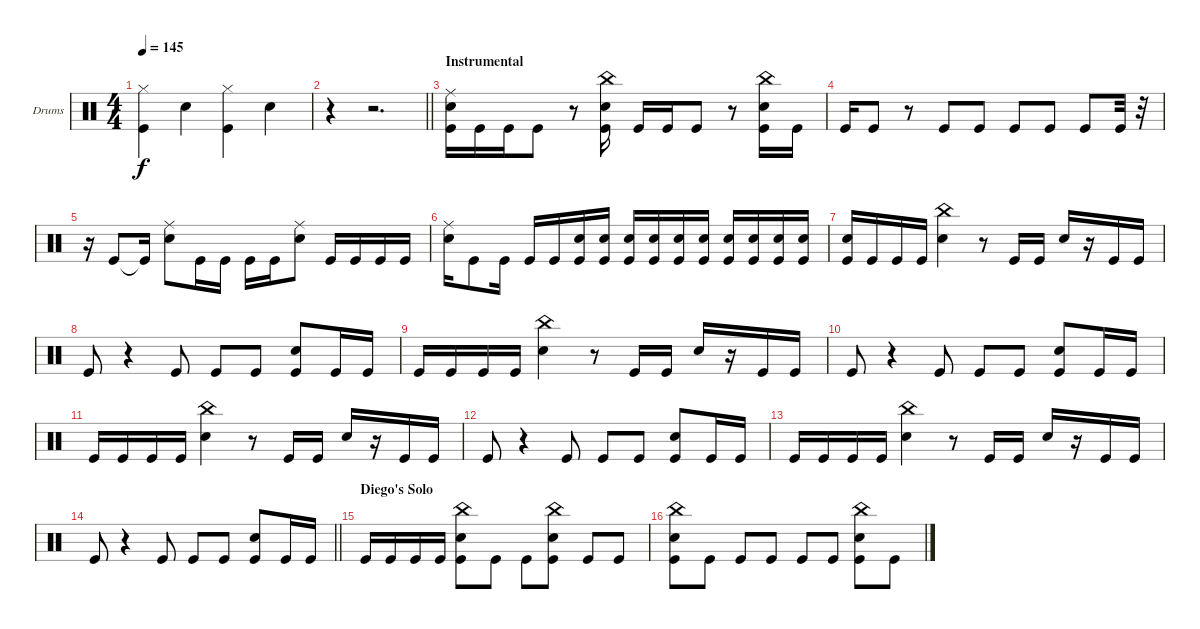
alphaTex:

\bracketExtendMode groupsimilarinstruments
\firstSystemTrackNameOrientation horizontal
\otherSystemsTrackNameOrientation horizontal
\track ("Drumkit" "Drums") {instrument percussion}
\staff {score}
\articulation defaults
\ts (4 4)
\tempo 145
\clef neutral
\ks c
("Hi-Hat (closed)" "Kick (hit)").4{dy f} "Snare (hit) 2".4 ("Hi-Hat (closed)" "Kick (hit)").4 "Snare (hit) 2".4 |
\barLineRight lightlight
r.4 r.2{d} |
\section ("" "Instrumental")
("Ride (middle)" "Snare (hit) 2" "Kick (hit)").16 "Kick (hit)".16 "Kick (hit)".16 "Kick (hit)".8 r.8 ("China (hit)" "Snare (hit) 2" "Kick (hit)").16 "Kick (hit)".16 "Kick (hit)".16 "Kick (hit)".8 r.8 ("China (hit)" "Snare (hit) 2" "Kick (hit)").16 "Kick (hit)".16 |
"Kick (hit)".16 "Kick (hit)".8 r.8 "Kick (hit)".8 "Kick (hit)".8 "Kick (hit)".8 "Kick (hit)".8 "Kick (hit)".8 "Kick (hit)".32 r.32 |
r.16 "Kick (hit)".8 "Kick (hit)"{t}.16 ("Ride (middle)" "Snare (hit) 2").8 "Kick (hit)".16 "Kick (hit)".16 "Kick (hit)".16 "Kick (hit)".16 ("Ride (middle)" "Snare (hit) 2").8 "Kick (hit)".16 "Kick (hit)".16 "Kick (hit)".16 "Kick (hit)".16 |
("Ride (middle)" "Snare (hit) 2").16 "Kick (hit)".8 "Kick (hit)".16 "Kick (hit)".16 "Kick (hit)".16 ("Snare (hit) 2" "Kick (hit)").16 ("Snare (hit) 2" "Kick (hit)").16 ("Snare (hit) 2" "Kick (hit)").16 ("Snare (hit) 2" "Kick (hit)").16 ("Snare (hit) 2" "Kick (hit)").16 ("Snare (hit) 2" "Kick (hit)").16 ("Snare (hit) 2" "Kick (hit)").16 ("Snare (hit) 2" "Kick (hit)").16 ("Snare (hit) 2" "Kick (hit)").16 ("Snare (hit) 2" "Kick (hit)").16 |
("Snare (hit) 2" "Kick (hit)").16 "Kick (hit)".16 "Kick (hit)".16 "Kick (hit)".16 ("China (hit)" "Snare (hit) 2").4 r.8 "Kick (hit)".16 "Kick (hit)".16 "Snare (hit) 2".16 r.16 "Kick (hit)".16 "Kick (hit)".16 |
"Kick (hit)".8 r.4 "Kick (hit)".8 "Kick (hit)".8 "Kick (hit)".8 ("Snare (hit) 2" "Kick (hit)").8 "Kick (hit)".16 "Kick (hit)".16 |
"Kick (hit)".16 "Kick (hit)".16 "Kick (hit)".16 "Kick (hit)".16 ("China (hit)" "Snare (hit) 2").4 r.8 "Kick (hit)".16 "Kick (hit)".16 "Snare (hit) 2".16 r.16 "Kick (hit)".16 "Kick (hit)".16 |
"Kick (hit)".8 r.4 "Kick (hit)".8 "Kick (hit)".8 "Kick (hit)".8 ("Snare (hit) 2" "Kick (hit)").8 "Kick (hit)".16 "Kick (hit)".16 |
"Kick (hit)".16 "Kick (hit)".16 "Kick (hit)".16 "Kick (hit)".16 ("China (hit)" "Snare (hit) 2").4 r.8 "Kick (hit)".16 "Kick (hit)".16 "Snare (hit) 2".16 r.16 "Kick (hit)".16 "Kick (hit)".16 |
"Kick (hit)".8 r.4 "Kick (hit)".8 "Kick (hit)".8 "Kick (hit)".8 ("Snare (hit) 2" "Kick (hit)").8 "Kick (hit)".16 "Kick (hit)".16 |
"Kick (hit)".16 "Kick (hit)".16 "Kick (hit)".16 "Kick (hit)".16 ("China (hit)" "Snare (hit) 2").4 r.8 "Kick (hit)".16 "Kick (hit)".16 "Snare (hit) 2".16 r.16 "Kick (hit)".16 "Kick (hit)".16 |
\barLineRight lightlight "Kick (hit)".8
r.4 "Kick (hit)".8 "Kick (hit)".8 "Kick (hit)".8 ("Snare (hit) 2" "Kick (hit)").8 "Kick (hit)".16 "Kick (hit)".16 |
\section ("" "Diego's Solo")
"Kick (hit)".16 "Kick (hit)".16 "Kick (hit)".16 "Kick (hit)".16 ("China (hit)" "Snare (hit) 2" "Kick (hit)").8 "Kick (hit)".8 "Kick (hit)".8 ("China (hit)" "Snare (hit) 2" "Kick (hit)").8 "Kick (hit)".8 "Kick (hit)".8 |
("China (hit)" "Snare (hit) 2" "Kick (hit)").8 "Kick (hit)".8 "Kick (hit)".8 "Kick (hit)".8 "Kick (hit)".8 "Kick (hit)".8 ("China (hit)" "Snare (hit) 2" "Kick (hit)").8 "Kick (hit)".8
